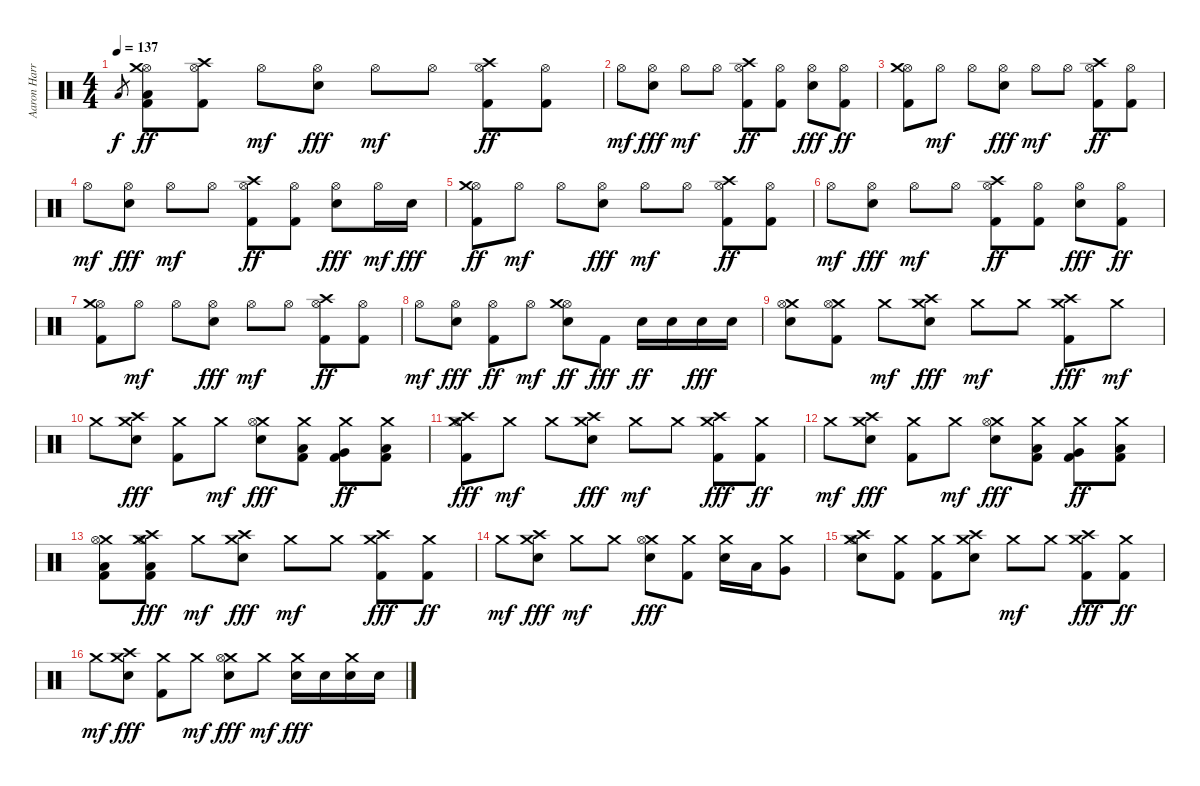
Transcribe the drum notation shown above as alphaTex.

\track ("Aaron Harris" "Aaron Harr") {instrument percussion}
\staff {score}
\articulation defaults
\ts (4 4)
\tempo 137
\clef neutral
\ks c "Low Tom (hit)".8{gr dy f}
("Hi-Hat (open)" "Crash medium (hit)" "Low Tom (hit)" "Kick (hit) 2").8{dy ff} ("Hi-Hat (open)" "Crash high (hit)" "Kick (hit) 2").8 "Hi-Hat (open)".8{dy mf} ("Hi-Hat (open)" "Electric Snare (hit)").8{dy fff} "Hi-Hat (open)".8{dy mf} "Hi-Hat (open)".8 ("Hi-Hat (open)" "Crash high (hit)" "Kick (hit) 2").8{dy ff} ("Hi-Hat (open)" "Kick (hit) 2").8 |
"Hi-Hat (open)".8{dy mf} ("Hi-Hat (open)" "Electric Snare (hit)").8{dy fff} "Hi-Hat (open)".8{dy mf} "Hi-Hat (open)".8 ("Hi-Hat (open)" "Crash high (hit)" "Kick (hit) 2").8{dy ff} ("Hi-Hat (open)" "Kick (hit) 2").8 ("Hi-Hat (open)" "Electric Snare (hit)").8{dy fff} ("Hi-Hat (open)" "Kick (hit) 2").8{dy ff} |
("Hi-Hat (open)" "Crash medium (hit)" "Kick (hit) 2").8 "Hi-Hat (open)".8{dy mf} "Hi-Hat (open)".8 ("Hi-Hat (open)" "Electric Snare (hit)").8{dy fff} "Hi-Hat (open)".8{dy mf} "Hi-Hat (open)".8 ("Hi-Hat (open)" "Crash high (hit)" "Kick (hit) 2").8{dy ff} ("Hi-Hat (open)" "Kick (hit) 2").8 |
"Hi-Hat (open)".8{dy mf} ("Hi-Hat (open)" "Electric Snare (hit)").8{dy fff} "Hi-Hat (open)".8{dy mf} "Hi-Hat (open)".8 ("Hi-Hat (open)" "Crash high (hit)" "Kick (hit) 2").8{dy ff} ("Hi-Hat (open)" "Kick (hit) 2").8 ("Hi-Hat (open)" "Electric Snare (hit)").8{dy fff} "Hi-Hat (open)".16{dy mf} "Electric Snare (hit)".16{dy fff} |
("Hi-Hat (open)" "Crash medium (hit)" "Kick (hit) 2").8{dy ff} "Hi-Hat (open)".8{dy mf} "Hi-Hat (open)".8 ("Hi-Hat (open)" "Electric Snare (hit)").8{dy fff} "Hi-Hat (open)".8{dy mf} "Hi-Hat (open)".8 ("Hi-Hat (open)" "Crash high (hit)" "Kick (hit) 2").8{dy ff} ("Hi-Hat (open)" "Kick (hit) 2").8 |
"Hi-Hat (open)".8{dy mf} ("Hi-Hat (open)" "Electric Snare (hit)").8{dy fff} "Hi-Hat (open)".8{dy mf} "Hi-Hat (open)".8 ("Hi-Hat (open)" "Crash high (hit)" "Kick (hit) 2").8{dy ff} ("Hi-Hat (open)" "Kick (hit) 2").8 ("Hi-Hat (open)" "Electric Snare (hit)").8{dy fff} ("Hi-Hat (open)" "Kick (hit) 2").8{dy ff} |
("Hi-Hat (open)" "Crash medium (hit)" "Kick (hit) 2").8 "Hi-Hat (open)".8{dy mf} "Hi-Hat (open)".8 ("Hi-Hat (open)" "Electric Snare (hit)").8{dy fff} "Hi-Hat (open)".8{dy mf} "Hi-Hat (open)".8 ("Hi-Hat (open)" "Crash high (hit)" "Kick (hit) 2").8{dy ff} ("Hi-Hat (open)" "Kick (hit) 2").8 |
"Hi-Hat (open)".8{dy mf} ("Hi-Hat (open)" "Electric Snare (hit)").8{dy fff} ("Hi-Hat (open)" "Kick (hit) 2").8{dy ff} "Hi-Hat (open)".8{dy mf} ("Hi-Hat (open)" "Crash medium (hit)" "Electric Snare (hit)").8{dy ff} "Kick (hit) 2".8{dy fff} "Electric Snare (hit)".16{dy ff} "Electric Snare (hit)".16 "Electric Snare (hit)".16{dy fff} "Electric Snare (hit)".16 |
("Crash medium (hit)" "Hi-Hat (open)" "Electric Snare (hit)").8 ("Crash medium (hit)" "Hi-Hat (open)" "Kick (hit) 2").8 "Crash medium (hit)".8{dy mf} ("Crash medium (hit)" "Crash high (hit)" "Electric Snare (hit)").8{dy fff} "Crash medium (hit)".8{dy mf} "Crash medium (hit)".8 ("Crash medium (hit)" "Crash high (hit)" "Kick (hit) 2").8{dy fff} "Crash medium (hit)".8{dy mf} |
"Crash medium (hit)".8 ("Crash medium (hit)" "Crash high (hit)" "Electric Snare (hit)").8{dy fff} ("Crash medium (hit)" "Kick (hit) 2").8 "Crash medium (hit)".8{dy mf} ("Crash medium (hit)" "Hi-Hat (open)" "Electric Snare (hit)").8{dy fff} ("Crash medium (hit)" "Low Tom (hit)" "Kick (hit) 2").8 ("Crash medium (hit)" "Very Low Tom (hit)" "Kick (hit) 2").8{dy ff} ("Crash medium (hit)" "Low Floor Tom (hit)" "Kick (hit) 2").8 |
("Crash medium (hit)" "Crash high (hit)" "Hi-Hat (open)" "Kick (hit) 2").8{dy fff} "Crash medium (hit)".8{dy mf} "Crash medium (hit)".8 ("Crash medium (hit)" "Crash high (hit)" "Electric Snare (hit)").8{dy fff} "Crash medium (hit)".8{dy mf} "Crash medium (hit)".8 ("Crash medium (hit)" "Crash high (hit)" "Kick (hit) 2").8{dy fff} ("Crash medium (hit)" "Kick (hit) 2").8{dy ff} |
"Crash medium (hit)".8{dy mf} ("Crash medium (hit)" "Crash high (hit)" "Electric Snare (hit)").8{dy fff} ("Crash medium (hit)" "Kick (hit) 2").8 "Crash medium (hit)".8{dy mf} ("Crash medium (hit)" "Hi-Hat (open)" "Electric Snare (hit)").8{dy fff} ("Crash medium (hit)" "Low Tom (hit)" "Kick (hit) 2").8 ("Crash medium (hit)" "Very Low Tom (hit)" "Kick (hit) 2").8{dy ff} ("Crash medium (hit)" "Low Floor Tom (hit)" "Kick (hit) 2").8 |
("Crash medium (hit)" "Hi-Hat (open)" "Low Floor Tom (hit)" "Kick (hit) 2").8 ("Crash medium (hit)" "Hi-Hat (open)" "Crash high (hit)" "Low Floor Tom (hit)" "Kick (hit) 2").8{dy fff} "Crash medium (hit)".8{dy mf} ("Crash medium (hit)" "Crash high (hit)" "Electric Snare (hit)").8{dy fff} "Crash medium (hit)".8{dy mf} "Crash medium (hit)".8 ("Crash medium (hit)" "Crash high (hit)" "Kick (hit) 2").8{dy fff} ("Crash medium (hit)" "Kick (hit) 2").8{dy ff} |
"Crash medium (hit)".8{dy mf} ("Crash medium (hit)" "Crash high (hit)" "Electric Snare (hit)").8{dy fff} "Crash medium (hit)".8{dy mf} "Crash medium (hit)".8 ("Crash medium (hit)" "Hi-Hat (open)" "Electric Snare (hit)").8{dy fff} ("Crash medium (hit)" "Kick (hit) 2").8 ("Crash medium (hit)" "Electric Snare (hit)").16 "Low Tom (hit)".16 ("Crash medium (hit)" "Very Low Tom (hit)").8 |
("Crash medium (hit)" "Crash high (hit)" "Hi-Hat (open)" "Electric Snare (hit)").8 ("Crash medium (hit)" "Kick (hit) 2").8 ("Crash medium (hit)" "Kick (hit) 2").8 ("Crash medium (hit)" "Crash high (hit)" "Electric Snare (hit)").8 "Crash medium (hit)".8{dy mf} "Crash medium (hit)".8 ("Crash medium (hit)" "Crash high (hit)" "Kick (hit) 2").8{dy fff} ("Crash medium (hit)" "Kick (hit) 2").8{dy ff} |
"Crash medium (hit)".8{dy mf} ("Crash medium (hit)" "Crash high (hit)" "Electric Snare (hit)").8{dy fff} ("Crash medium (hit)" "Kick (hit) 2").8 "Crash medium (hit)".8{dy mf} ("Crash medium (hit)" "Hi-Hat (open)" "Electric Snare (hit)").8{dy fff} "Crash medium (hit)".8{dy mf} ("Crash medium (hit)" "Electric Snare (hit)").16{dy fff} "Electric Snare (hit)".16 ("Crash medium (hit)" "Electric Snare (hit)").16 "Electric Snare (hit)".16
